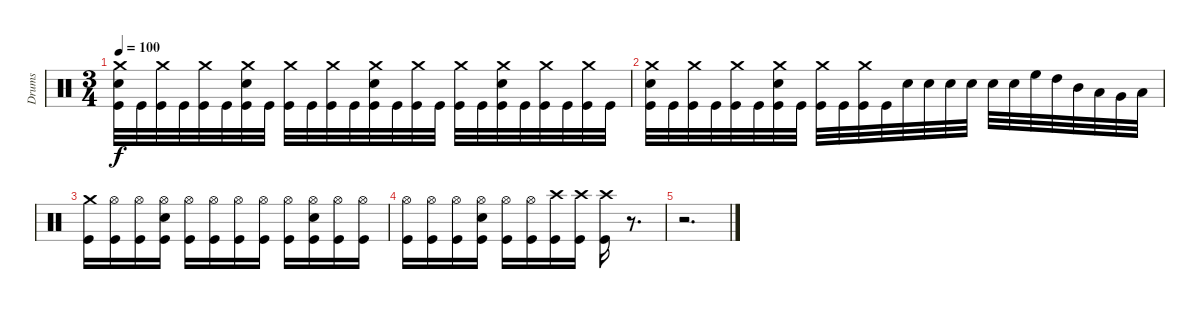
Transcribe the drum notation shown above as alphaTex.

\track ("Drums" "Drums") {instrument percussion}
\staff {score}
\articulation defaults
\ts (3 4)
\tempo 100
\clef neutral
\ks c
("Kick (hit)" "Electric Snare (hit)" "Crash medium (hit)").32{dy f} "Kick (hit)".32 ("Kick (hit)" "Crash medium (hit)").32 "Kick (hit)".32 ("Kick (hit)" "Crash medium (hit)").32 "Kick (hit)".32 ("Kick (hit)" "Electric Snare (hit)" "Crash medium (hit)").32 "Kick (hit)".32 ("Kick (hit)" "Crash medium (hit)").32 "Kick (hit)".32 ("Kick (hit)" "Crash medium (hit)").32 "Kick (hit)".32 ("Kick (hit)" "Electric Snare (hit)" "Crash medium (hit)").32 "Kick (hit)".32 ("Kick (hit)" "Crash medium (hit)").32 "Kick (hit)".32 ("Kick (hit)" "Crash medium (hit)").32 "Kick (hit)".32 ("Kick (hit)" "Electric Snare (hit)" "Crash medium (hit)").32 "Kick (hit)".32 ("Kick (hit)" "Crash medium (hit)").32 "Kick (hit)".32 ("Kick (hit)" "Crash medium (hit)").32 "Kick (hit)".32 |
("Kick (hit)" "Electric Snare (hit)" "Crash medium (hit)").32 "Kick (hit)".32 ("Kick (hit)" "Crash medium (hit)").32 "Kick (hit)".32 ("Kick (hit)" "Crash medium (hit)").32 "Kick (hit)".32 ("Kick (hit)" "Electric Snare (hit)" "Crash medium (hit)").32 "Kick (hit)".32 ("Kick (hit)" "Crash medium (hit)").32 "Kick (hit)".32 ("Kick (hit)" "Crash medium (hit)").32 "Kick (hit)".32 "Electric Snare (hit)".32 "Electric Snare (hit)".32 "Electric Snare (hit)".32 "Electric Snare (hit)".32 "Electric Snare (hit)".32 "Electric Snare (hit)".32 "High Floor Tom (hit)".32 "High Tom (hit)".32 "Mid Tom (hit)".32 "Low Tom (hit)".32 "Very Low Tom (hit)".32 "Low Floor Tom (hit)".32 |
("Kick (hit)" "Crash medium (hit)").16 ("Kick (hit)" "Hi-Hat (open)").16 ("Kick (hit)" "Hi-Hat (open)").16 ("Kick (hit)" "Hi-Hat (open)" "Electric Snare (hit)").16 ("Kick (hit)" "Hi-Hat (open)").16 ("Kick (hit)" "Hi-Hat (open)").16 ("Kick (hit)" "Hi-Hat (open)").16 ("Kick (hit)" "Hi-Hat (open)").16 ("Kick (hit)" "Hi-Hat (open)").16 ("Kick (hit)" "Hi-Hat (open)" "Electric Snare (hit)").16 ("Kick (hit)" "Hi-Hat (open)").16 ("Kick (hit)" "Hi-Hat (open)").16 |
("Kick (hit)" "Hi-Hat (open)").16 ("Kick (hit)" "Hi-Hat (open)").16 ("Kick (hit)" "Hi-Hat (open)").16 ("Kick (hit)" "Hi-Hat (open)" "Electric Snare (hit)").16 ("Kick (hit)" "Hi-Hat (open)").16 ("Kick (hit)" "Hi-Hat (open)").16 ("Kick (hit)" "Crash high (hit)").16 ("Kick (hit)" "Crash high (hit)").16 ("Kick (hit)" "Crash high (hit)").16 r.8{d} |
r.2{d}
